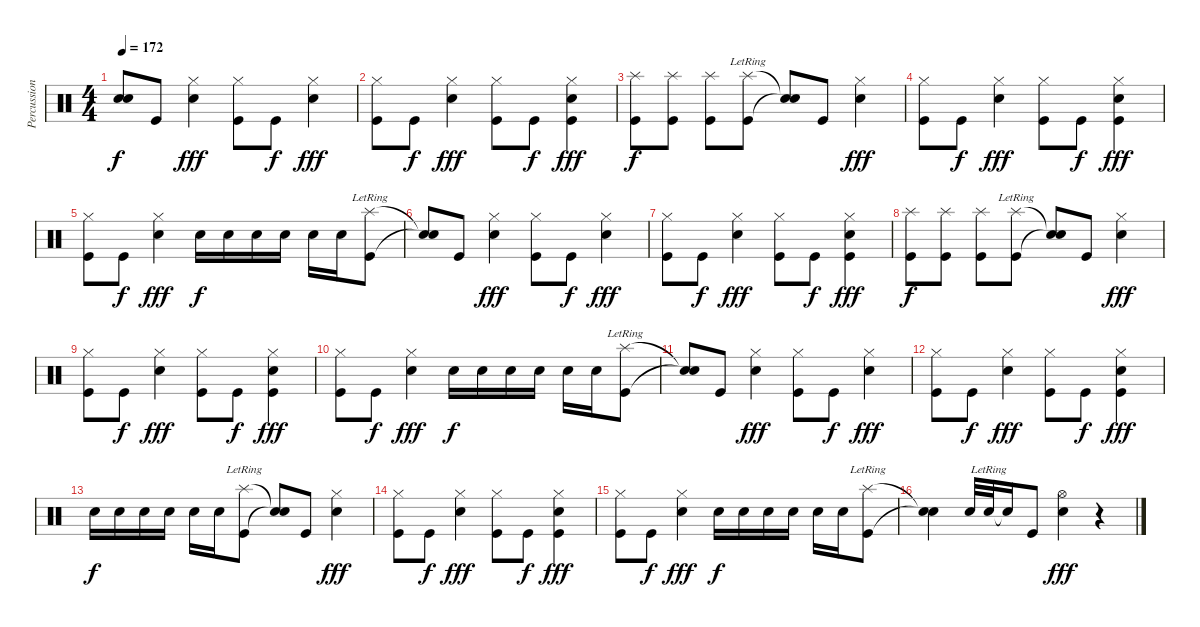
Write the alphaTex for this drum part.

\track ("Percussions" "Percussion") {instrument percussion}
\staff {score}
\articulation defaults
\ts (4 4)
\tempo 172
\clef neutral
\ks c
("Snare (hit)"{t} "Snare (hit)"{t}).8{dy f} "Kick (hit)".8 ("Hi-Hat (closed)" "Snare (hit) 2").4{dy fff} ("Hi-Hat (closed)" "Kick (hit)").8 "Kick (hit)".8{dy f} ("Hi-Hat (closed)" "Snare (hit) 2").4{dy fff} |
("Hi-Hat (closed)" "Kick (hit)").8 "Kick (hit)".8{dy f} ("Hi-Hat (closed)" "Snare (hit) 2").4{dy fff} ("Hi-Hat (closed)" "Kick (hit)").8 "Kick (hit)".8{dy f} ("Hi-Hat (closed)" "Snare (hit) 2" "Kick (hit)").4{dy fff} |
("Splash (hit)" "Kick (hit)").8{dy f} ("Splash (hit)" "Kick (hit)").8 ("Splash (hit)" "Kick (hit)").8 ("Splash (hit)"{lr} "Kick (hit)").8 ("Snare (hit)"{t} "Snare (hit)"{t}).8 "Kick (hit)".8 ("Hi-Hat (closed)" "Snare (hit) 2").4{dy fff} |
("Hi-Hat (closed)" "Kick (hit)").8 "Kick (hit)".8{dy f} ("Hi-Hat (closed)" "Snare (hit) 2").4{dy fff} ("Hi-Hat (closed)" "Kick (hit)").8 "Kick (hit)".8{dy f} ("Hi-Hat (closed)" "Snare (hit) 2" "Kick (hit)").4{dy fff} |
("Hi-Hat (closed)" "Kick (hit)").8 "Kick (hit)".8{dy f} ("Hi-Hat (closed)" "Snare (hit) 2").4{dy fff} "Snare (hit) 2".16{dy f} "Snare (hit) 2".16 "Snare (hit) 2".16 "Snare (hit) 2".16 "Snare (hit) 2".16 "Snare (hit) 2".16 ("Splash (hit)"{lr} "Kick (hit)").8 |
("Snare (hit)"{t} "Snare (hit)"{t}).8 "Kick (hit)".8 ("Hi-Hat (closed)" "Snare (hit) 2").4{dy fff} ("Hi-Hat (closed)" "Kick (hit)").8 "Kick (hit)".8{dy f} ("Hi-Hat (closed)" "Snare (hit) 2").4{dy fff} |
("Hi-Hat (closed)" "Kick (hit)").8 "Kick (hit)".8{dy f} ("Hi-Hat (closed)" "Snare (hit) 2").4{dy fff} ("Hi-Hat (closed)" "Kick (hit)").8 "Kick (hit)".8{dy f} ("Hi-Hat (closed)" "Snare (hit) 2" "Kick (hit)").4{dy fff} |
("Splash (hit)" "Kick (hit)").8{dy f} ("Splash (hit)" "Kick (hit)").8 ("Splash (hit)" "Kick (hit)").8 ("Splash (hit)"{lr} "Kick (hit)").8 ("Snare (hit)"{t} "Snare (hit)"{t}).8 "Kick (hit)".8 ("Hi-Hat (closed)" "Snare (hit) 2").4{dy fff} |
("Hi-Hat (closed)" "Kick (hit)").8 "Kick (hit)".8{dy f} ("Hi-Hat (closed)" "Snare (hit) 2").4{dy fff} ("Hi-Hat (closed)" "Kick (hit)").8 "Kick (hit)".8{dy f} ("Hi-Hat (closed)" "Snare (hit) 2" "Kick (hit)").4{dy fff} |
("Hi-Hat (closed)" "Kick (hit)").8 "Kick (hit)".8{dy f} ("Hi-Hat (closed)" "Snare (hit) 2").4{dy fff} "Snare (hit) 2".16{dy f} "Snare (hit) 2".16 "Snare (hit) 2".16 "Snare (hit) 2".16 "Snare (hit) 2".16 "Snare (hit) 2".16 ("Splash (hit)"{lr} "Kick (hit)").8 |
("Snare (hit)"{t} "Snare (hit)"{t}).8 "Kick (hit)".8 ("Hi-Hat (closed)" "Snare (hit) 2").4{dy fff} ("Hi-Hat (closed)" "Kick (hit)").8 "Kick (hit)".8{dy f} ("Hi-Hat (closed)" "Snare (hit) 2").4{dy fff} |
("Hi-Hat (closed)" "Kick (hit)").8 "Kick (hit)".8{dy f} ("Hi-Hat (closed)" "Snare (hit) 2").4{dy fff} ("Hi-Hat (closed)" "Kick (hit)").8 "Kick (hit)".8{dy f} ("Hi-Hat (closed)" "Snare (hit) 2" "Kick (hit)").4{dy fff} |
"Snare (hit) 2".16{dy f} "Snare (hit) 2".16 "Snare (hit) 2".16 "Snare (hit) 2".16 "Snare (hit) 2".16 "Snare (hit) 2".16 ("Splash (hit)"{lr} "Kick (hit)").8 ("Snare (hit)"{t} "Snare (hit)"{t}).8 "Kick (hit)".8 ("Hi-Hat (closed)" "Snare (hit) 2").4{dy fff} |
("Hi-Hat (closed)" "Kick (hit)").8 "Kick (hit)".8{dy f} ("Hi-Hat (closed)" "Snare (hit) 2").4{dy fff} ("Hi-Hat (closed)" "Kick (hit)").8 "Kick (hit)".8{dy f} ("Hi-Hat (closed)" "Snare (hit) 2" "Kick (hit)").4{dy fff} |
("Hi-Hat (closed)" "Kick (hit)").8 "Kick (hit)".8{dy f} ("Hi-Hat (closed)" "Snare (hit) 2").4{dy fff} "Snare (hit) 2".16{dy f} "Snare (hit) 2".16 "Snare (hit) 2".16 "Snare (hit) 2".16 "Snare (hit) 2".16 "Snare (hit) 2".16 ("Splash (hit)"{lr} "Kick (hit)").8 |
("Snare (hit)"{t} "Snare (hit)"{t}).4 "Snare (hit) 2".32 "Snare (hit) 2"{lr}.32 "Snare (hit)"{t}.16 "Kick (hit)".8 ("Hi-Hat (open)" "Snare (hit) 2").4{dy fff} r.4
